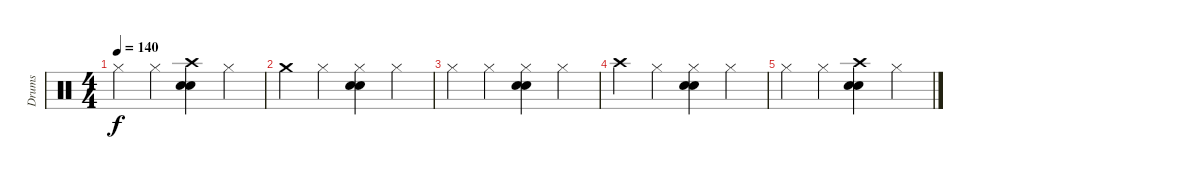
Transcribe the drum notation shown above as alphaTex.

\track ("Drums" "Drums") {instrument percussion}
\staff {score}
\articulation defaults
\ts (4 4)
\tempo 140
\clef neutral
\ks c "Hi-Hat (closed)".4{dy f} "Hi-Hat (closed)".4
("Crash high (hit)" "Electric Snare (hit)" "Snare (hit) 2").4 "Hi-Hat (closed)".4 |
"Crash medium (hit)".4{volume 0} "Hi-Hat (closed)".4 ("Hi-Hat (closed)" "Electric Snare (hit)" "Snare (hit) 2").4 "Hi-Hat (closed)".4 |
"Hi-Hat (closed)".4 "Hi-Hat (closed)".4 ("Hi-Hat (closed)" "Electric Snare (hit)" "Snare (hit) 2").4 "Hi-Hat (closed)".4 |
"Crash high (hit)".4 "Hi-Hat (closed)".4 ("Hi-Hat (closed)" "Electric Snare (hit)" "Snare (hit) 2").4 "Hi-Hat (closed)".4 |
"Hi-Hat (closed)".4 "Hi-Hat (closed)".4 ("Crash high (hit)" "Electric Snare (hit)" "Snare (hit) 2").4 "Hi-Hat (closed)".4
